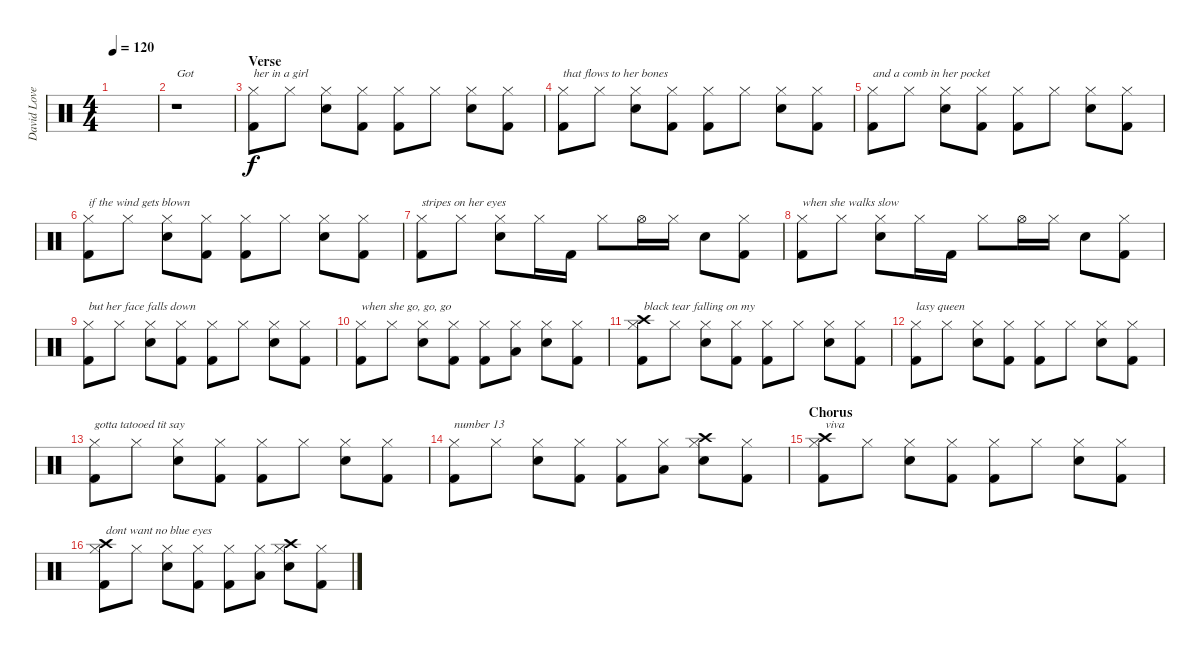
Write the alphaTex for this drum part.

\track ("David Lovering" "David Love") {instrument percussion}
\staff {score}
\articulation defaults
\ts (4 4)
\tempo 120
\clef neutral
\ks c
|
r.1{txt "Got"} |
\section ("" "Verse")
("Hi-Hat (closed)" "Kick (hit) 2").8{txt "her in a girl"} "Hi-Hat (closed)".8 ("Hi-Hat (closed)" "Snare (hit) 2").8 ("Hi-Hat (closed)" "Kick (hit) 2").8 ("Hi-Hat (closed)" "Kick (hit) 2").8 "Hi-Hat (closed)".8 ("Hi-Hat (closed)" "Snare (hit) 2").8 ("Hi-Hat (closed)" "Kick (hit) 2").8 |
("Hi-Hat (closed)" "Kick (hit) 2").8{txt "that flows to her bones"} "Hi-Hat (closed)".8 ("Hi-Hat (closed)" "Snare (hit) 2").8 ("Hi-Hat (closed)" "Kick (hit) 2").8 ("Hi-Hat (closed)" "Kick (hit) 2").8 "Hi-Hat (closed)".8 ("Hi-Hat (closed)" "Snare (hit) 2").8 ("Hi-Hat (closed)" "Kick (hit) 2").8 |
("Hi-Hat (closed)" "Kick (hit) 2").8{txt "and a comb in her pocket"} "Hi-Hat (closed)".8 ("Hi-Hat (closed)" "Snare (hit) 2").8 ("Hi-Hat (closed)" "Kick (hit) 2").8 ("Hi-Hat (closed)" "Kick (hit) 2").8 "Hi-Hat (closed)".8 ("Hi-Hat (closed)" "Snare (hit) 2").8 ("Hi-Hat (closed)" "Kick (hit) 2").8 |
("Hi-Hat (closed)" "Kick (hit) 2").8{txt "if the wind gets blown"} "Hi-Hat (closed)".8 ("Hi-Hat (closed)" "Snare (hit) 2").8 ("Hi-Hat (closed)" "Kick (hit) 2").8 ("Hi-Hat (closed)" "Kick (hit) 2").8 "Hi-Hat (closed)".8 ("Hi-Hat (closed)" "Snare (hit) 2").8 ("Hi-Hat (closed)" "Kick (hit) 2").8 |
("Hi-Hat (closed)" "Kick (hit) 2").8{txt "stripes on her eyes"} "Hi-Hat (closed)".8 ("Hi-Hat (closed)" "Snare (hit) 2").8 "Hi-Hat (closed)".16 "Kick (hit) 2".16 "Hi-Hat (closed)".8 "Hi-Hat (open)".16 "Hi-Hat (closed)".16 "Snare (hit) 2".8 ("Hi-Hat (closed)" "Kick (hit) 2").8 |
("Hi-Hat (closed)" "Kick (hit) 2").8{txt "when she walks slow"} "Hi-Hat (closed)".8 ("Hi-Hat (closed)" "Snare (hit) 2").8 "Hi-Hat (closed)".16 "Kick (hit) 2".16 "Hi-Hat (closed)".8 "Hi-Hat (open)".16 "Hi-Hat (closed)".16 "Snare (hit) 2".8 ("Hi-Hat (closed)" "Kick (hit) 2").8 |
("Hi-Hat (closed)" "Kick (hit) 2").8{txt "but her face falls down"} "Hi-Hat (closed)".8 ("Hi-Hat (closed)" "Snare (hit) 2").8 ("Hi-Hat (closed)" "Kick (hit) 2").8 ("Hi-Hat (closed)" "Kick (hit) 2").8 "Hi-Hat (closed)".8 ("Hi-Hat (closed)" "Snare (hit) 2").8 ("Hi-Hat (closed)" "Kick (hit) 2").8 |
("Hi-Hat (closed)" "Kick (hit) 2").8{txt "when she go, go, go"} "Hi-Hat (closed)".8 ("Hi-Hat (closed)" "Snare (hit) 2").8 ("Hi-Hat (closed)" "Kick (hit) 2").8 ("Hi-Hat (closed)" "Kick (hit) 2").8 ("Hi-Hat (closed)" "Low Tom (hit)").8 ("Hi-Hat (closed)" "Snare (hit) 2").8 ("Hi-Hat (closed)" "Kick (hit) 2").8 |
("Hi-Hat (closed)" "Crash high (hit)" "Kick (hit) 2").8{txt "black tear falling on my"} "Hi-Hat (closed)".8 ("Hi-Hat (closed)" "Snare (hit) 2").8 ("Hi-Hat (closed)" "Kick (hit) 2").8 ("Hi-Hat (closed)" "Kick (hit) 2").8 "Hi-Hat (closed)".8 ("Hi-Hat (closed)" "Snare (hit) 2").8 ("Hi-Hat (closed)" "Kick (hit) 2").8 |
("Hi-Hat (closed)" "Kick (hit) 2").8{txt "lasy queen"} "Hi-Hat (closed)".8 ("Hi-Hat (closed)" "Snare (hit) 2").8 ("Hi-Hat (closed)" "Kick (hit) 2").8 ("Hi-Hat (closed)" "Kick (hit) 2").8 "Hi-Hat (closed)".8 ("Hi-Hat (closed)" "Snare (hit) 2").8 ("Hi-Hat (closed)" "Kick (hit) 2").8 |
("Hi-Hat (closed)" "Kick (hit) 2").8{txt "gotta tatooed tit say "} "Hi-Hat (closed)".8 ("Hi-Hat (closed)" "Snare (hit) 2").8 ("Hi-Hat (closed)" "Kick (hit) 2").8 ("Hi-Hat (closed)" "Kick (hit) 2").8 "Hi-Hat (closed)".8 ("Hi-Hat (closed)" "Snare (hit) 2").8 ("Hi-Hat (closed)" "Kick (hit) 2").8 |
("Hi-Hat (closed)" "Kick (hit) 2").8{txt "number 13"} "Hi-Hat (closed)".8 ("Hi-Hat (closed)" "Snare (hit) 2").8 ("Hi-Hat (closed)" "Kick (hit) 2").8 ("Hi-Hat (closed)" "Kick (hit) 2").8 ("Hi-Hat (closed)" "Low Tom (hit)").8 ("Hi-Hat (closed)" "Crash high (hit)" "Snare (hit) 2").8 ("Hi-Hat (closed)" "Kick (hit) 2").8 |
\section ("" "Chorus")
("Hi-Hat (closed)" "Crash high (hit)" "Kick (hit) 2").8{txt "viva"} "Hi-Hat (closed)".8 ("Hi-Hat (closed)" "Snare (hit) 2").8 ("Hi-Hat (closed)" "Kick (hit) 2").8 ("Hi-Hat (closed)" "Kick (hit) 2").8 "Hi-Hat (closed)".8 ("Hi-Hat (closed)" "Snare (hit) 2").8 ("Hi-Hat (closed)" "Kick (hit) 2").8 |
("Hi-Hat (closed)" "Crash high (hit)" "Kick (hit) 2").8{txt "dont want no blue eyes"} "Hi-Hat (closed)".8 ("Hi-Hat (closed)" "Snare (hit) 2").8 ("Hi-Hat (closed)" "Kick (hit) 2").8 ("Hi-Hat (closed)" "Kick (hit) 2").8 ("Hi-Hat (closed)" "Low Tom (hit)").8 ("Hi-Hat (closed)" "Crash high (hit)" "Snare (hit) 2").8 ("Hi-Hat (closed)" "Kick (hit) 2").8
